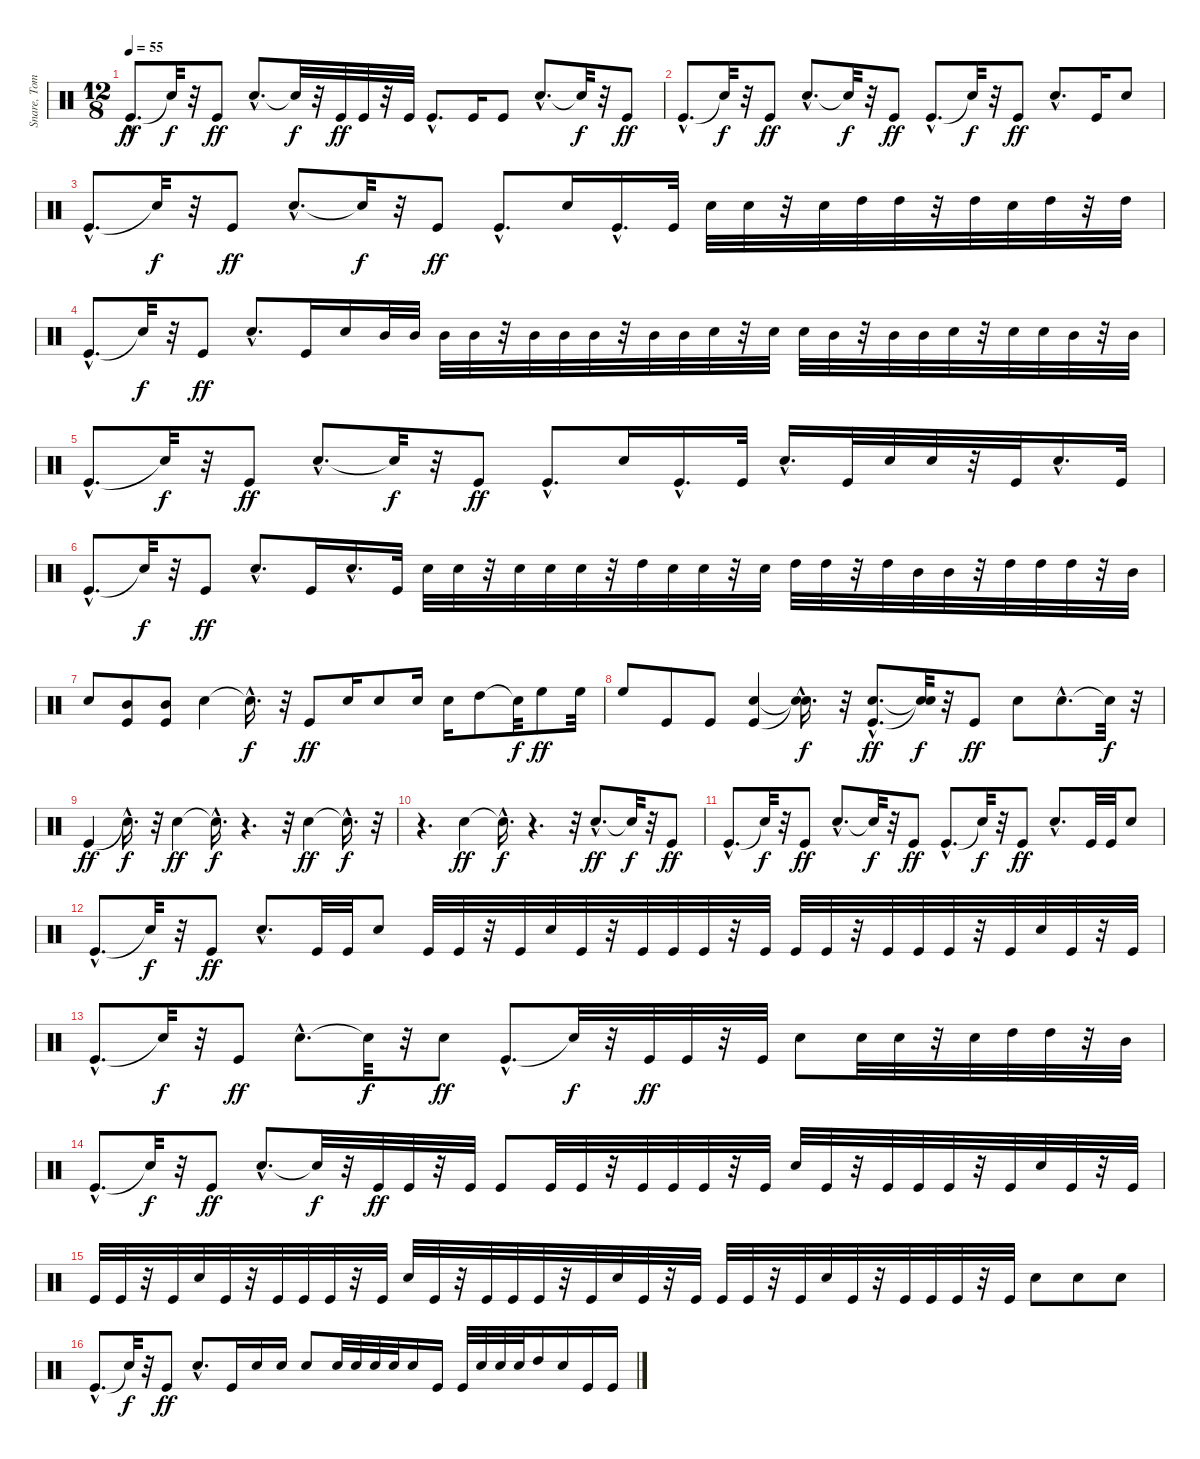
\track ("Snare, Toms, Bass drum" "Snare, Tom") {instrument percussion}
\staff {score}
\articulation defaults
\ts (12 8)
\tempo 55
\clef neutral
\ks c "Kick (hit)"{hac}.8{d dy ff} "Snare (hit)"{t}.32{dy f}
r.32 "Kick (hit)".8{dy ff} "Snare (hit) 2"{hac}.8{d} "Snare (hit)"{t}.32{dy f} r.32 "Kick (hit)".32{dy ff} "Kick (hit)".32 r.32 "Kick (hit)".32 "Kick (hit)"{hac}.8{d} "Kick (hit)".16 "Kick (hit)".8 "Snare (hit) 2"{hac}.8{d} "Snare (hit)"{t}.32{dy f} r.32 "Kick (hit)".8{dy ff} |
"Kick (hit)"{hac}.8{d} "Snare (hit)"{t}.32{dy f} r.32 "Kick (hit)".8{dy ff} "Snare (hit) 2"{hac}.8{d} "Snare (hit)"{t}.32{dy f} r.32 "Kick (hit)".8{dy ff} "Kick (hit)"{hac}.8{d} "Snare (hit)"{t}.32{dy f} r.32 "Kick (hit)".8{dy ff} "Snare (hit) 2"{hac}.8{d} "Kick (hit)".16 "Snare (hit) 2".8 |
"Kick (hit)"{hac}.8{d} "Snare (hit)"{t}.32{dy f} r.32 "Kick (hit)".8{dy ff} "Snare (hit) 2"{hac}.8{d} "Snare (hit)"{t}.32{dy f} r.32 "Kick (hit)".8{dy ff} "Kick (hit)"{hac}.8{d} "Snare (hit) 2".16 "Kick (hit)"{hac}.16{d} "Kick (hit)".32 "Snare (hit) 2".32 "Snare (hit) 2".32 r.32 "Snare (hit) 2".32 "High Tom (hit)".32 "High Tom (hit)".32 r.32 "High Tom (hit)".32 "Snare (hit) 2".32 "High Tom (hit)".32 r.32 "High Tom (hit)".32 |
"Kick (hit)"{hac}.8{d} "Snare (hit)"{t}.32{dy f} r.32 "Kick (hit)".8{dy ff} "Snare (hit) 2"{hac}.8{d} "Kick (hit)".16 "Snare (hit) 2".16 "Mid Tom (hit)".32 "Mid Tom (hit)".32 "Mid Tom (hit)".32 "Mid Tom (hit)".32 r.32 "Mid Tom (hit)".32 "Mid Tom (hit)".32 "Mid Tom (hit)".32 r.32 "Mid Tom (hit)".32 "Mid Tom (hit)".32 "Snare (hit) 2".32 r.32 "Snare (hit) 2".32 "Snare (hit) 2".32 "Mid Tom (hit)".32 r.32 "Mid Tom (hit)".32 "Mid Tom (hit)".32 "Snare (hit) 2".32 r.32 "Snare (hit) 2".32 "Snare (hit) 2".32 "Mid Tom (hit)".32 r.32 "Mid Tom (hit)".32 |
"Kick (hit)"{hac}.8{d} "Snare (hit)"{t}.32{dy f} r.32 "Kick (hit)".8{dy ff} "Snare (hit) 2"{hac}.8{d} "Snare (hit)"{t}.32{dy f} r.32 "Kick (hit)".8{dy ff} "Kick (hit)"{hac}.8{d} "Snare (hit) 2".16 "Kick (hit)"{hac}.16{d} "Kick (hit)".32 "Snare (hit) 2"{hac}.16{d} "Kick (hit)".32 "Snare (hit) 2".32 "Snare (hit) 2".32 r.32 "Kick (hit)".32 "Snare (hit) 2"{hac}.16{d} "Kick (hit)".32 |
"Kick (hit)"{hac}.8{d} "Snare (hit)"{t}.32{dy f} r.32 "Kick (hit)".8{dy ff} "Snare (hit) 2"{hac}.8{d} "Kick (hit)".16 "Snare (hit) 2"{hac}.16{d} "Kick (hit)".32 "Snare (hit) 2".32 "Snare (hit) 2".32 r.32 "Snare (hit) 2".32 "Snare (hit) 2".32 "Snare (hit) 2".32 r.32 "High Tom (hit)".32 "Snare (hit) 2".32 "Snare (hit) 2".32 r.32 "Snare (hit) 2".32 "High Tom (hit)".32 "High Tom (hit)".32 r.32 "High Tom (hit)".32 "Mid Tom (hit)".32 "Mid Tom (hit)".32 r.32 "High Tom (hit)".32 "High Tom (hit)".32 "High Tom (hit)".32 r.32 "Mid Tom (hit)".32 |
"Snare (hit) 2".8 ("Kick (hit)" "Mid Tom (hit)").8 ("Kick (hit)" "Mid Tom (hit)").8 "Snare (hit) 2".4 "Snare (hit)"{hac t}.16{d dy f} r.32 "Kick (hit)".8{dy ff} "Snare (hit) 2".16 "Snare (hit) 2".8 "Snare (hit) 2".16 "Snare (hit) 2".16 "High Tom (hit)".8 "Snare (hit)"{t}.32{dy f} "High Floor Tom (hit)".8{dy ff} "High Floor Tom (hit)".32 |
"High Floor Tom (hit)".8 "Kick (hit)".8 "Kick (hit)".8 ("Kick (hit)" "Snare (hit) 2").4 ("Snare (hit)"{hac t} "Snare (hit)"{hac t}).16{d dy f} r.32 ("Kick (hit)"{hac} "Snare (hit) 2"{hac}).8{d dy ff} ("Snare (hit)"{t} "Snare (hit)"{t}).32{dy f} r.32 "Kick (hit)".8{dy ff} "Snare (hit) 2".8 "Snare (hit) 2"{hac}.8{d} "Snare (hit)"{t}.32{dy f} r.32 |
"Kick (hit)".4{dy ff} "Snare (hit)"{hac t}.16{d dy f} r.32 "Snare (hit) 2".4{dy ff} "Snare (hit)"{hac t}.16{d dy f} r.4{d} r.32 "Snare (hit) 2".4{dy ff} "Snare (hit)"{hac t}.16{d dy f} r.32 |
r.4{d} "Snare (hit) 2".4{dy ff} "Snare (hit)"{hac t}.16{d dy f} r.4{d} r.32 "Snare (hit) 2"{hac}.8{d dy ff} "Snare (hit)"{t}.32{dy f} r.32 "Kick (hit)".8{dy ff} |
"Kick (hit)"{hac}.8{d} "Snare (hit)"{t}.32{dy f} r.32 "Kick (hit)".8{dy ff} "Snare (hit) 2"{hac}.8{d} "Snare (hit)"{t}.32{dy f} r.32 "Kick (hit)".8{dy ff} "Kick (hit)"{hac}.8{d} "Snare (hit)"{t}.32{dy f} r.32 "Kick (hit)".8{dy ff} "Snare (hit) 2"{hac}.8{d} "Kick (hit)".32 "Kick (hit)".32 "Snare (hit) 2".8 |
"Kick (hit)"{hac}.8{d} "Snare (hit)"{t}.32{dy f} r.32 "Kick (hit)".8{dy ff} "Snare (hit) 2"{hac}.8{d} "Kick (hit)".32 "Kick (hit)".32 "Snare (hit) 2".8 "Kick (hit)".32 "Kick (hit)".32 r.32 "Kick (hit)".32 "Snare (hit) 2".32 "Kick (hit)".32 r.32 "Kick (hit)".32 "Kick (hit)".32 "Kick (hit)".32 r.32 "Kick (hit)".32 "Kick (hit)".32 "Kick (hit)".32 r.32 "Kick (hit)".32 "Kick (hit)".32 "Kick (hit)".32 r.32 "Kick (hit)".32 "Snare (hit) 2".32 "Kick (hit)".32 r.32 "Kick (hit)".32 |
"Kick (hit)"{hac}.8{d} "Snare (hit)"{t}.32{dy f} r.32 "Kick (hit)".8{dy ff} "Snare (hit) 2"{hac}.8{d} "Snare (hit)"{t}.32{dy f} r.32 "Snare (hit) 2".8{dy ff} "Kick (hit)"{hac}.8{d} "Snare (hit)"{t}.32{dy f} r.32 "Kick (hit)".32{dy ff} "Kick (hit)".32 r.32 "Kick (hit)".32 "Snare (hit) 2".8 "Snare (hit) 2".32 "Snare (hit) 2".32 r.32 "Snare (hit) 2".32 "High Tom (hit)".32 "High Tom (hit)".32 r.32 "Mid Tom (hit)".32 |
"Kick (hit)"{hac}.8{d} "Snare (hit)"{t}.32{dy f} r.32 "Kick (hit)".8{dy ff} "Snare (hit) 2"{hac}.8{d} "Snare (hit)"{t}.32{dy f} r.32 "Kick (hit)".32{dy ff} "Kick (hit)".32 r.32 "Kick (hit)".32 "Kick (hit)".8 "Kick (hit)".32 "Kick (hit)".32 r.32 "Kick (hit)".32 "Kick (hit)".32 "Kick (hit)".32 r.32 "Kick (hit)".32 "Snare (hit) 2".32 "Kick (hit)".32 r.32 "Kick (hit)".32 "Kick (hit)".32 "Kick (hit)".32 r.32 "Kick (hit)".32 "Snare (hit) 2".32 "Kick (hit)".32 r.32 "Kick (hit)".32 |
"Kick (hit)".32 "Kick (hit)".32 r.32 "Kick (hit)".32 "Snare (hit) 2".32 "Kick (hit)".32 r.32 "Kick (hit)".32 "Kick (hit)".32 "Kick (hit)".32 r.32 "Kick (hit)".32 "Snare (hit) 2".32 "Kick (hit)".32 r.32 "Kick (hit)".32 "Kick (hit)".32 "Kick (hit)".32 r.32 "Kick (hit)".32 "Snare (hit) 2".32 "Kick (hit)".32 r.32 "Kick (hit)".32 "Kick (hit)".32 "Kick (hit)".32 r.32 "Kick (hit)".32 "Snare (hit) 2".32 "Kick (hit)".32 r.32 "Kick (hit)".32 "Kick (hit)".32 "Kick (hit)".32 r.32 "Kick (hit)".32 "Snare (hit) 2".8 "Snare (hit) 2".8 "Snare (hit) 2".8 |
"Kick (hit)"{hac}.8{d} "Snare (hit)"{t}.32{dy f} r.32 "Kick (hit)".8{dy ff} "Snare (hit) 2"{hac}.8{d} "Kick (hit)".16 "Snare (hit) 2".16 "Snare (hit) 2".16 "Snare (hit) 2".8 "Snare (hit) 2".32 "Snare (hit) 2".32 "Snare (hit) 2".32 "Snare (hit) 2".32 "Snare (hit) 2".16 "Kick (hit)".16 "Kick (hit)".32 "Snare (hit) 2".32 "Snare (hit) 2".32 "Snare (hit) 2".32 "High Tom (hit)".16 "Snare (hit) 2".16 "Kick (hit)".16 "Kick (hit)".16
